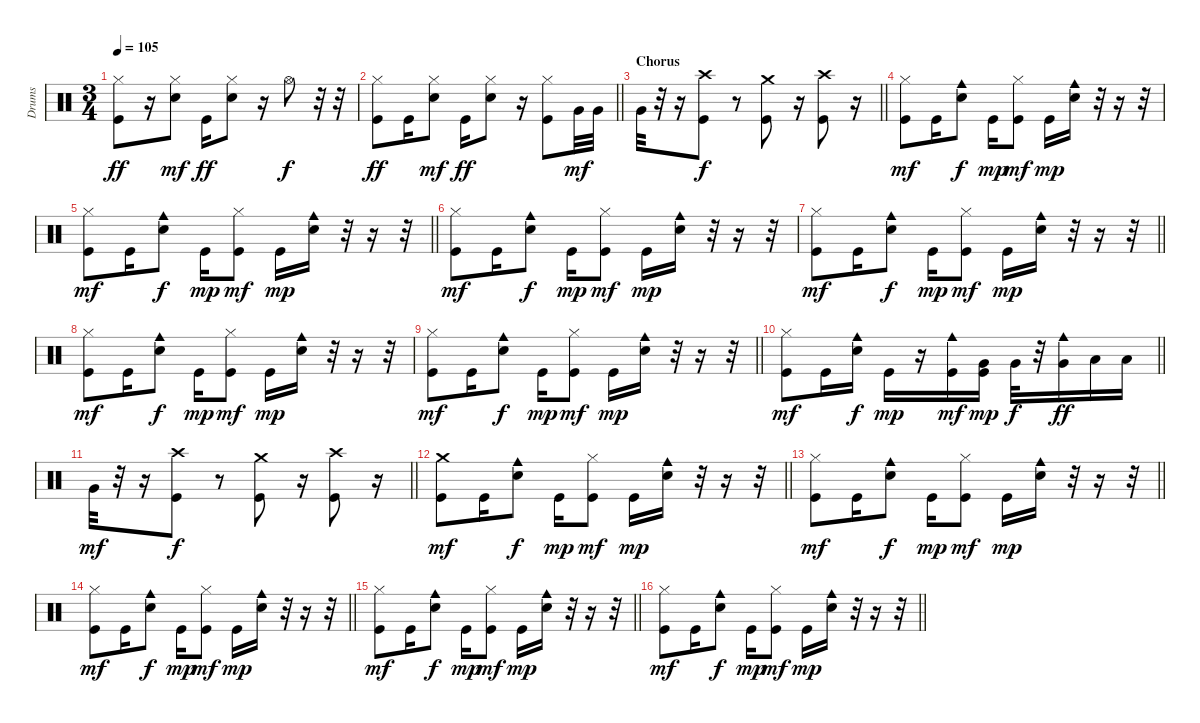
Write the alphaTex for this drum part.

\track ("Drums" "Drums") {instrument percussion}
\staff {score}
\articulation defaults
\ts (3 4)
\tempo 105
\clef neutral
\ks c
("Hi-Hat (closed)" "Kick (hit)").8{dy ff} r.16 ("Hi-Hat (closed)" "Snare (hit) 2").8{dy mf} "Kick (hit)".16{dy ff} ("Hi-Hat (closed)" "Snare (hit) 2").8 r.16 "Hi-Hat (open)".8{dy f} r.32 r.32 |
\barLineRight lightlight
("Hi-Hat (closed)" "Kick (hit)").8{dy ff} "Kick (hit)".16 ("Hi-Hat (closed)" "Snare (hit) 2").8{dy mf} "Kick (hit)".16{dy ff} ("Hi-Hat (closed)" "Snare (hit) 2").8 r.16 ("Hi-Hat (closed)" "Kick (hit)").8 "Very Low Tom (hit)".32{dy mf} "Very Low Tom (hit)".32 |
\section ("" "Chorus")
\barLineRight lightlight "Very Low Tom (hit)".32
r.32 r.16 ("Crash high (hit)" "Kick (hit)").8{dy f} r.8 ("Crash medium (hit)" "Kick (hit)").8 r.16 ("Crash high (hit)" "Kick (hit)").8 r.16 |
("Hi-Hat (closed)" "Kick (hit)").8{dy mf} "Kick (hit)".16 ("Cowbell medium (hit)" "Snare (hit) 2").8{dy f} "Kick (hit)".16{dy mp} ("Hi-Hat (closed)" "Kick (hit)").8{dy mf} "Kick (hit)".16{dy mp} ("Cowbell medium (hit)" "Snare (hit) 2").16 r.32 r.16 r.32 |
\barLineRight lightlight
("Hi-Hat (closed)" "Kick (hit)").8{dy mf} "Kick (hit)".16 ("Cowbell medium (hit)" "Snare (hit) 2").8{dy f} "Kick (hit)".16{dy mp} ("Hi-Hat (closed)" "Kick (hit)").8{dy mf} "Kick (hit)".16{dy mp} ("Cowbell medium (hit)" "Snare (hit) 2").16 r.32 r.16 r.32 |
("Hi-Hat (closed)" "Kick (hit)").8{dy mf} "Kick (hit)".16 ("Cowbell medium (hit)" "Snare (hit) 2").8{dy f} "Kick (hit)".16{dy mp} ("Hi-Hat (closed)" "Kick (hit)").8{dy mf} "Kick (hit)".16{dy mp} ("Cowbell medium (hit)" "Snare (hit) 2").16 r.32 r.16 r.32 |
\barLineRight lightlight
("Hi-Hat (closed)" "Kick (hit)").8{dy mf} "Kick (hit)".16 ("Cowbell medium (hit)" "Snare (hit) 2").8{dy f} "Kick (hit)".16{dy mp} ("Hi-Hat (closed)" "Kick (hit)").8{dy mf} "Kick (hit)".16{dy mp} ("Cowbell medium (hit)" "Snare (hit) 2").16 r.32 r.16 r.32 |
("Hi-Hat (closed)" "Kick (hit)").8{dy mf} "Kick (hit)".16 ("Cowbell medium (hit)" "Snare (hit) 2").8{dy f} "Kick (hit)".16{dy mp} ("Hi-Hat (closed)" "Kick (hit)").8{dy mf} "Kick (hit)".16{dy mp} ("Cowbell medium (hit)" "Snare (hit) 2").16 r.32 r.16 r.32 |
\barLineRight lightlight
("Hi-Hat (closed)" "Kick (hit)").8{dy mf} "Kick (hit)".16 ("Cowbell medium (hit)" "Snare (hit) 2").8{dy f} "Kick (hit)".16{dy mp} ("Hi-Hat (closed)" "Kick (hit)").8{dy mf} "Kick (hit)".16{dy mp} ("Cowbell medium (hit)" "Snare (hit) 2").16 r.32 r.16 r.32 |
\barLineRight lightlight
("Hi-Hat (closed)" "Kick (hit)").8{dy mf} "Kick (hit)".16 ("Cowbell medium (hit)" "Snare (hit) 2").16{dy f} "Kick (hit)".16{dy mp} r.16 ("Cowbell medium (hit)" "Kick (hit)").16{dy mf} ("Very Low Tom (hit)" "Kick (hit)").16{dy mp} "Very Low Tom (hit)".32{dy f} r.32 ("Cowbell medium (hit)" "Very Low Tom (hit)").16{dy ff} "Low Tom (hit)".16 "Low Tom (hit)".16 |
\barLineRight lightlight "Very Low Tom (hit)".32{dy mf}
r.32 r.16 ("Crash high (hit)" "Kick (hit)").8{dy f} r.8 ("Crash medium (hit)" "Kick (hit)").8 r.16 ("Crash high (hit)" "Kick (hit)").8 r.16 |
\barLineRight lightlight
("Crash medium (hit)" "Kick (hit)").8{dy mf} "Kick (hit)".16 ("Cowbell medium (hit)" "Snare (hit) 2").8{dy f} "Kick (hit)".16{dy mp} ("Hi-Hat (closed)" "Kick (hit)").8{dy mf} "Kick (hit)".16{dy mp} ("Cowbell medium (hit)" "Snare (hit) 2").16 r.32 r.16 r.32 |
\barLineRight lightlight
("Hi-Hat (closed)" "Kick (hit)").8{dy mf} "Kick (hit)".16 ("Cowbell medium (hit)" "Snare (hit) 2").8{dy f} "Kick (hit)".16{dy mp} ("Hi-Hat (closed)" "Kick (hit)").8{dy mf} "Kick (hit)".16{dy mp} ("Cowbell medium (hit)" "Snare (hit) 2").16 r.32 r.16 r.32 |
\barLineRight lightlight
("Hi-Hat (closed)" "Kick (hit)").8{dy mf} "Kick (hit)".16 ("Cowbell medium (hit)" "Snare (hit) 2").8{dy f} "Kick (hit)".16{dy mp} ("Hi-Hat (closed)" "Kick (hit)").8{dy mf} "Kick (hit)".16{dy mp} ("Cowbell medium (hit)" "Snare (hit) 2").16 r.32 r.16 r.32 |
\barLineRight lightlight
("Hi-Hat (closed)" "Kick (hit)").8{dy mf} "Kick (hit)".16 ("Cowbell medium (hit)" "Snare (hit) 2").8{dy f} "Kick (hit)".16{dy mp} ("Hi-Hat (closed)" "Kick (hit)").8{dy mf} "Kick (hit)".16{dy mp} ("Cowbell medium (hit)" "Snare (hit) 2").16 r.32 r.16 r.32 |
\barLineRight lightlight
("Hi-Hat (closed)" "Kick (hit)").8{dy mf} "Kick (hit)".16 ("Cowbell medium (hit)" "Snare (hit) 2").8{dy f} "Kick (hit)".16{dy mp} ("Hi-Hat (closed)" "Kick (hit)").8{dy mf} "Kick (hit)".16{dy mp} ("Cowbell medium (hit)" "Snare (hit) 2").16 r.32 r.16 r.32
